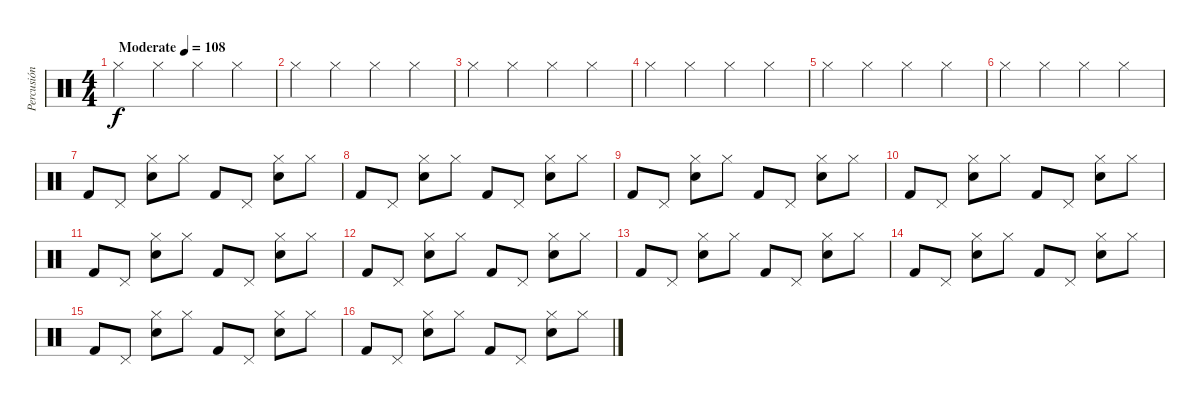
\track ("Percusión" "Percusión") {instrument percussion}
\staff {score}
\articulation defaults
\ts (4 4)
\tempo (108 "Moderate")
\clef neutral
\ks c "Hi-Hat (closed)".4{dy f} "Hi-Hat (closed)".4 "Hi-Hat (closed)".4 "Hi-Hat (closed)".4
|
"Hi-Hat (closed)".4 "Hi-Hat (closed)".4 "Hi-Hat (closed)".4 "Hi-Hat (closed)".4 |
"Hi-Hat (closed)".4 "Hi-Hat (closed)".4 "Hi-Hat (closed)".4 "Hi-Hat (closed)".4 |
"Hi-Hat (closed)".4 "Hi-Hat (closed)".4 "Hi-Hat (closed)".4 "Hi-Hat (closed)".4 |
"Hi-Hat (closed)".4 "Hi-Hat (closed)".4 "Hi-Hat (closed)".4 "Hi-Hat (closed)".4 |
"Hi-Hat (closed)".4 "Hi-Hat (closed)".4 "Hi-Hat (closed)".4 "Hi-Hat (closed)".4 |
"Kick (hit) 2".8 "Pedal Hi-Hat (hit)".8 ("Electric Snare (hit)" "Hi-Hat (closed)").8 "Hi-Hat (closed)".8 "Kick (hit) 2".8 "Pedal Hi-Hat (hit)".8 ("Electric Snare (hit)" "Hi-Hat (closed)").8 "Hi-Hat (closed)".8 |
"Kick (hit) 2".8 "Pedal Hi-Hat (hit)".8 ("Electric Snare (hit)" "Hi-Hat (closed)").8 "Hi-Hat (closed)".8 "Kick (hit) 2".8 "Pedal Hi-Hat (hit)".8 ("Electric Snare (hit)" "Hi-Hat (closed)").8 "Hi-Hat (closed)".8 |
"Kick (hit) 2".8 "Pedal Hi-Hat (hit)".8 ("Electric Snare (hit)" "Hi-Hat (closed)").8 "Hi-Hat (closed)".8 "Kick (hit) 2".8 "Pedal Hi-Hat (hit)".8 ("Electric Snare (hit)" "Hi-Hat (closed)").8 "Hi-Hat (closed)".8 |
"Kick (hit) 2".8 "Pedal Hi-Hat (hit)".8 ("Electric Snare (hit)" "Hi-Hat (closed)").8 "Hi-Hat (closed)".8 "Kick (hit) 2".8 "Pedal Hi-Hat (hit)".8 ("Electric Snare (hit)" "Hi-Hat (closed)").8 "Hi-Hat (closed)".8 |
"Kick (hit) 2".8 "Pedal Hi-Hat (hit)".8 ("Electric Snare (hit)" "Hi-Hat (closed)").8 "Hi-Hat (closed)".8 "Kick (hit) 2".8 "Pedal Hi-Hat (hit)".8 ("Electric Snare (hit)" "Hi-Hat (closed)").8 "Hi-Hat (closed)".8 |
"Kick (hit) 2".8 "Pedal Hi-Hat (hit)".8 ("Electric Snare (hit)" "Hi-Hat (closed)").8 "Hi-Hat (closed)".8 "Kick (hit) 2".8 "Pedal Hi-Hat (hit)".8 ("Electric Snare (hit)" "Hi-Hat (closed)").8 "Hi-Hat (closed)".8 |
"Kick (hit) 2".8 "Pedal Hi-Hat (hit)".8 ("Electric Snare (hit)" "Hi-Hat (closed)").8 "Hi-Hat (closed)".8 "Kick (hit) 2".8 "Pedal Hi-Hat (hit)".8 ("Electric Snare (hit)" "Hi-Hat (closed)").8 "Hi-Hat (closed)".8 |
"Kick (hit) 2".8 "Pedal Hi-Hat (hit)".8 ("Electric Snare (hit)" "Hi-Hat (closed)").8 "Hi-Hat (closed)".8 "Kick (hit) 2".8 "Pedal Hi-Hat (hit)".8 ("Electric Snare (hit)" "Hi-Hat (closed)").8 "Hi-Hat (closed)".8 |
"Kick (hit) 2".8 "Pedal Hi-Hat (hit)".8 ("Electric Snare (hit)" "Hi-Hat (closed)").8 "Hi-Hat (closed)".8 "Kick (hit) 2".8 "Pedal Hi-Hat (hit)".8 ("Electric Snare (hit)" "Hi-Hat (closed)").8 "Hi-Hat (closed)".8 |
"Kick (hit) 2".8 "Pedal Hi-Hat (hit)".8 ("Electric Snare (hit)" "Hi-Hat (closed)").8 "Hi-Hat (closed)".8 "Kick (hit) 2".8 "Pedal Hi-Hat (hit)".8 ("Electric Snare (hit)" "Hi-Hat (closed)").8 "Hi-Hat (closed)".8
